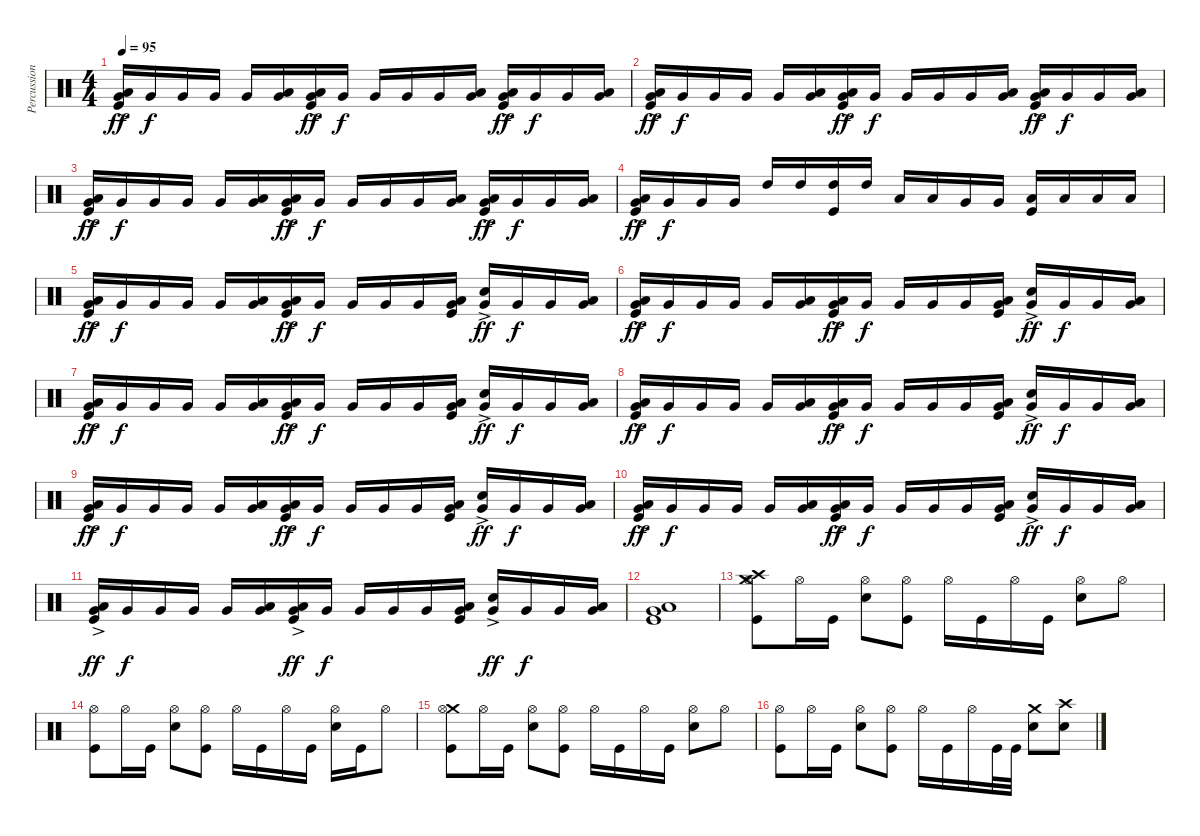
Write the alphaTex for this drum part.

\track ("Percussion" "Percussion") {instrument percussion}
\staff {score}
\articulation defaults
\ts (4 4)
\tempo 95
\clef neutral
\ks c
("Low Floor Tom (hit)"{ac} "Very Low Tom (hit)" "Kick (hit)").16{dy ff} "Very Low Tom (hit)".16{dy f} "Very Low Tom (hit)".16 "Very Low Tom (hit)".16 "Very Low Tom (hit)".16 ("Low Floor Tom (hit)" "Very Low Tom (hit)").16 ("Low Floor Tom (hit)"{ac} "Very Low Tom (hit)" "Kick (hit)").16{dy ff} "Very Low Tom (hit)".16{dy f} "Very Low Tom (hit)".16 "Very Low Tom (hit)".16 "Very Low Tom (hit)".16 ("Low Floor Tom (hit)" "Very Low Tom (hit)").16 ("Low Floor Tom (hit)"{ac} "Very Low Tom (hit)" "Kick (hit)").16{dy ff} "Very Low Tom (hit)".16{dy f} "Very Low Tom (hit)".16 ("Low Floor Tom (hit)" "Very Low Tom (hit)").16 |
("Low Floor Tom (hit)"{ac} "Very Low Tom (hit)" "Kick (hit)").16{dy ff} "Very Low Tom (hit)".16{dy f} "Very Low Tom (hit)".16 "Very Low Tom (hit)".16 "Very Low Tom (hit)".16 ("Low Floor Tom (hit)" "Very Low Tom (hit)").16 ("Low Floor Tom (hit)"{ac} "Very Low Tom (hit)" "Kick (hit)").16{dy ff} "Very Low Tom (hit)".16{dy f} "Very Low Tom (hit)".16 "Very Low Tom (hit)".16 "Very Low Tom (hit)".16 ("Low Floor Tom (hit)" "Very Low Tom (hit)").16 ("Low Floor Tom (hit)"{ac} "Very Low Tom (hit)" "Kick (hit)").16{dy ff} "Very Low Tom (hit)".16{dy f} "Very Low Tom (hit)".16 ("Low Floor Tom (hit)" "Very Low Tom (hit)").16 |
("Low Floor Tom (hit)"{ac} "Very Low Tom (hit)" "Kick (hit)").16{dy ff} "Very Low Tom (hit)".16{dy f} "Very Low Tom (hit)".16 "Very Low Tom (hit)".16 "Very Low Tom (hit)".16 ("Low Floor Tom (hit)" "Very Low Tom (hit)").16 ("Low Floor Tom (hit)"{ac} "Very Low Tom (hit)" "Kick (hit)").16{dy ff} "Very Low Tom (hit)".16{dy f} "Very Low Tom (hit)".16 "Very Low Tom (hit)".16 "Very Low Tom (hit)".16 ("Low Floor Tom (hit)" "Very Low Tom (hit)").16 ("Low Floor Tom (hit)"{ac} "Very Low Tom (hit)" "Kick (hit)").16{dy ff} "Very Low Tom (hit)".16{dy f} "Very Low Tom (hit)".16 ("Low Floor Tom (hit)" "Very Low Tom (hit)").16 |
("Low Floor Tom (hit)"{ac} "Very Low Tom (hit)" "Kick (hit)").16{dy ff} "Very Low Tom (hit)".16{dy f} "Very Low Tom (hit)".16 "Very Low Tom (hit)".16 "High Tom (hit)".16 "High Tom (hit)".16 ("High Tom (hit)" "Kick (hit)").16 "High Tom (hit)".16 "Low Tom (hit)".16 "Low Tom (hit)".16 "Very Low Tom (hit)".16 "Very Low Tom (hit)".16 ("Low Floor Tom (hit)" "Kick (hit)").16 "Low Floor Tom (hit)".16 "Low Floor Tom (hit)".16 "Low Floor Tom (hit)".16 |
("Low Floor Tom (hit)"{ac} "Very Low Tom (hit)" "Kick (hit)").16{dy ff} "Very Low Tom (hit)".16{dy f} "Very Low Tom (hit)".16 "Very Low Tom (hit)".16 "Very Low Tom (hit)".16 ("Low Floor Tom (hit)" "Very Low Tom (hit)").16 ("Low Floor Tom (hit)"{ac} "Very Low Tom (hit)" "Kick (hit)").16{dy ff} "Very Low Tom (hit)".16{dy f} "Very Low Tom (hit)".16 "Very Low Tom (hit)".16 "Very Low Tom (hit)".16 ("Low Floor Tom (hit)" "Very Low Tom (hit)" "Kick (hit)").16 ("Snare (hit) 2"{ac} "Very Low Tom (hit)").16{dy ff} "Very Low Tom (hit)".16{dy f} "Very Low Tom (hit)".16 ("Low Floor Tom (hit)" "Very Low Tom (hit)").16 |
("Low Floor Tom (hit)"{ac} "Very Low Tom (hit)" "Kick (hit)").16{dy ff} "Very Low Tom (hit)".16{dy f} "Very Low Tom (hit)".16 "Very Low Tom (hit)".16 "Very Low Tom (hit)".16 ("Low Floor Tom (hit)" "Very Low Tom (hit)").16 ("Low Floor Tom (hit)"{ac} "Very Low Tom (hit)" "Kick (hit)").16{dy ff} "Very Low Tom (hit)".16{dy f} "Very Low Tom (hit)".16 "Very Low Tom (hit)".16 "Very Low Tom (hit)".16 ("Low Floor Tom (hit)" "Very Low Tom (hit)" "Kick (hit)").16 ("Snare (hit) 2"{ac} "Very Low Tom (hit)").16{dy ff} "Very Low Tom (hit)".16{dy f} "Very Low Tom (hit)".16 ("Low Floor Tom (hit)" "Very Low Tom (hit)").16 |
("Low Floor Tom (hit)"{ac} "Very Low Tom (hit)" "Kick (hit)").16{dy ff} "Very Low Tom (hit)".16{dy f} "Very Low Tom (hit)".16 "Very Low Tom (hit)".16 "Very Low Tom (hit)".16 ("Low Floor Tom (hit)" "Very Low Tom (hit)").16 ("Low Floor Tom (hit)"{ac} "Very Low Tom (hit)" "Kick (hit)").16{dy ff} "Very Low Tom (hit)".16{dy f} "Very Low Tom (hit)".16 "Very Low Tom (hit)".16 "Very Low Tom (hit)".16 ("Low Floor Tom (hit)" "Very Low Tom (hit)" "Kick (hit)").16 ("Snare (hit) 2"{ac} "Very Low Tom (hit)").16{dy ff} "Very Low Tom (hit)".16{dy f} "Very Low Tom (hit)".16 ("Low Floor Tom (hit)" "Very Low Tom (hit)").16 |
("Low Floor Tom (hit)"{ac} "Very Low Tom (hit)" "Kick (hit)").16{dy ff} "Very Low Tom (hit)".16{dy f} "Very Low Tom (hit)".16 "Very Low Tom (hit)".16 "Very Low Tom (hit)".16 ("Low Floor Tom (hit)" "Very Low Tom (hit)").16 ("Low Floor Tom (hit)"{ac} "Very Low Tom (hit)" "Kick (hit)").16{dy ff} "Very Low Tom (hit)".16{dy f} "Very Low Tom (hit)".16 "Very Low Tom (hit)".16 "Very Low Tom (hit)".16 ("Low Floor Tom (hit)" "Very Low Tom (hit)" "Kick (hit)").16 ("Snare (hit) 2"{ac} "Very Low Tom (hit)").16{dy ff} "Very Low Tom (hit)".16{dy f} "Very Low Tom (hit)".16 ("Low Floor Tom (hit)" "Very Low Tom (hit)").16 |
("Low Floor Tom (hit)"{ac} "Very Low Tom (hit)" "Kick (hit)").16{dy ff} "Very Low Tom (hit)".16{dy f} "Very Low Tom (hit)".16 "Very Low Tom (hit)".16 "Very Low Tom (hit)".16 ("Low Floor Tom (hit)" "Very Low Tom (hit)").16 ("Low Floor Tom (hit)"{ac} "Very Low Tom (hit)" "Kick (hit)").16{dy ff} "Very Low Tom (hit)".16{dy f} "Very Low Tom (hit)".16 "Very Low Tom (hit)".16 "Very Low Tom (hit)".16 ("Low Floor Tom (hit)" "Very Low Tom (hit)" "Kick (hit)").16 ("Snare (hit) 2"{ac} "Very Low Tom (hit)").16{dy ff} "Very Low Tom (hit)".16{dy f} "Very Low Tom (hit)".16 ("Low Floor Tom (hit)" "Very Low Tom (hit)").16 |
("Low Floor Tom (hit)"{ac} "Very Low Tom (hit)" "Kick (hit)").16{dy ff} "Very Low Tom (hit)".16{dy f} "Very Low Tom (hit)".16 "Very Low Tom (hit)".16 "Very Low Tom (hit)".16 ("Low Floor Tom (hit)" "Very Low Tom (hit)").16 ("Low Floor Tom (hit)"{ac} "Very Low Tom (hit)" "Kick (hit)").16{dy ff} "Very Low Tom (hit)".16{dy f} "Very Low Tom (hit)".16 "Very Low Tom (hit)".16 "Very Low Tom (hit)".16 ("Low Floor Tom (hit)" "Very Low Tom (hit)" "Kick (hit)").16 ("Snare (hit) 2"{ac} "Very Low Tom (hit)").16{dy ff} "Very Low Tom (hit)".16{dy f} "Very Low Tom (hit)".16 ("Low Floor Tom (hit)" "Very Low Tom (hit)").16 |
("Low Floor Tom (hit)"{ac} "Very Low Tom (hit)" "Kick (hit)").16{dy ff} "Very Low Tom (hit)".16{dy f} "Very Low Tom (hit)".16 "Very Low Tom (hit)".16 "Very Low Tom (hit)".16 ("Low Floor Tom (hit)" "Very Low Tom (hit)").16 ("Low Floor Tom (hit)"{ac} "Very Low Tom (hit)" "Kick (hit)").16{dy ff} "Very Low Tom (hit)".16{dy f} "Very Low Tom (hit)".16 "Very Low Tom (hit)".16 "Very Low Tom (hit)".16 ("Low Floor Tom (hit)" "Very Low Tom (hit)" "Kick (hit)").16 ("Snare (hit) 2"{ac} "Very Low Tom (hit)").16{dy ff} "Very Low Tom (hit)".16{dy f} "Very Low Tom (hit)".16 ("Low Floor Tom (hit)" "Very Low Tom (hit)").16 |
("Low Floor Tom (hit)" "Very Low Tom (hit)" "Kick (hit)").1 |
("Crash high (hit)" "Crash medium (hit)" "Hi-Hat (open)" "Kick (hit)").8 "Hi-Hat (open)".16 "Kick (hit)".16 ("Hi-Hat (open)" "Snare (hit) 2").8 ("Hi-Hat (open)" "Kick (hit)").8 "Hi-Hat (open)".16 "Kick (hit)".16 "Hi-Hat (open)".16 "Kick (hit)".16 ("Hi-Hat (open)" "Snare (hit) 2").8 "Hi-Hat (open)".8 |
("Hi-Hat (open)" "Kick (hit)").8 "Hi-Hat (open)".16 "Kick (hit)".16 ("Hi-Hat (open)" "Snare (hit) 2").8 ("Hi-Hat (open)" "Kick (hit)").8 "Hi-Hat (open)".16 "Kick (hit)".16 "Hi-Hat (open)".16 "Kick (hit)".16 ("Hi-Hat (open)" "Snare (hit) 2").16 "Kick (hit)".16 "Hi-Hat (open)".8 |
("Crash medium (hit)" "Hi-Hat (open)" "Kick (hit)").8 "Hi-Hat (open)".16 "Kick (hit)".16 ("Hi-Hat (open)" "Snare (hit) 2").8 ("Hi-Hat (open)" "Kick (hit)").8 "Hi-Hat (open)".16 "Kick (hit)".16 "Hi-Hat (open)".16 "Kick (hit)".16 ("Hi-Hat (open)" "Snare (hit) 2").8 "Hi-Hat (open)".8 |
("Hi-Hat (open)" "Kick (hit)").8 "Hi-Hat (open)".16 "Kick (hit)".16 ("Hi-Hat (open)" "Snare (hit) 2").8 ("Hi-Hat (open)" "Kick (hit)").8 "Hi-Hat (open)".16 "Kick (hit)".16 "Hi-Hat (open)".16 "Kick (hit)".32 "Kick (hit)".32 ("Crash medium (hit)" "Snare (hit) 2").8 ("Crash high (hit)" "Snare (hit) 2").8
